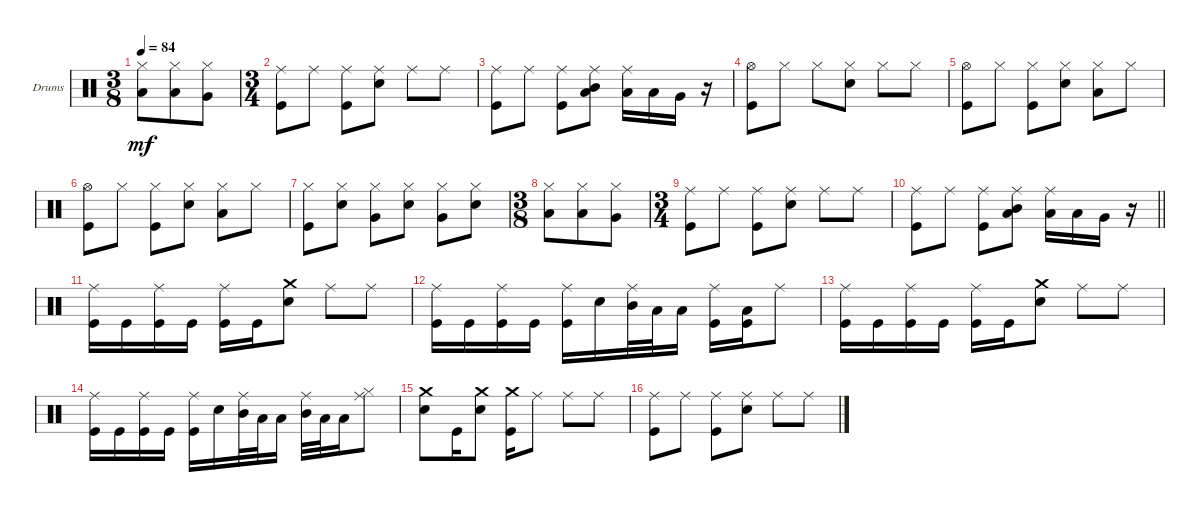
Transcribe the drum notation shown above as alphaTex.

\defaultSystemsLayout 4
\bracketExtendMode groupsimilarinstruments
\firstSystemTrackNameOrientation horizontal
\otherSystemsTrackNameOrientation horizontal
\track ("Drumkit" "Drums") {instrument percussion}
\staff {score}
\articulation defaults
\ts (3 8)
\tempo 84
\clef neutral
\scale
0.391473
\ks c
("Low Tom (hit)" "Hi-Hat (closed)").8{dy mf} ("Low Tom (hit)" "Hi-Hat (closed)").8 ("Very Low Tom (hit)" "Hi-Hat (closed)").8 |
\ts (3 4)
\scale
0.391473 ("Kick (hit)" "Ride (middle)").8 "Ride (middle)".8 ("Kick (hit)" "Ride (middle)").8 ("Snare (hit) 2" "Ride (middle)").8 "Ride (middle)".8 "Ride (middle)".8 |
\scale
0.333333 ("Kick (hit)" "Ride (middle)").8 "Ride (middle)".8 ("Kick (hit)" "Ride (middle)").8 ("Low Tom (hit)" "Mid Tom (hit)" "Ride (middle)").8 ("Low Tom (hit)" "Ride (middle)").16 "Low Tom (hit)".16 "Very Low Tom (hit)".16 r.16 |
\scale
0.333333 ("Kick (hit)" "Hi-Hat (open)").8 "Hi-Hat (closed)".8 "Hi-Hat (closed)".8 ("Snare (hit) 2" "Hi-Hat (closed)").8 "Hi-Hat (closed)".8 "Hi-Hat (closed)".8 |
\scale
0.333333 ("Kick (hit)" "Hi-Hat (open)").8 "Hi-Hat (closed)".8 ("Hi-Hat (closed)" "Kick (hit)").8 ("Snare (hit) 2" "Hi-Hat (closed)").8 ("Low Tom (hit)" "Hi-Hat (closed)").8 "Hi-Hat (closed)".8 |
\scale
0.262911 ("Kick (hit)" "Hi-Hat (open)").8 "Hi-Hat (closed)".8 ("Kick (hit)" "Hi-Hat (closed)").8 ("Snare (hit) 2" "Hi-Hat (closed)").8 ("Hi-Hat (closed)" "Low Tom (hit)").8 "Hi-Hat (closed)".8 |
\scale
0.262911 ("Kick (hit)" "Hi-Hat (closed)").8 ("Snare (hit) 2" "Hi-Hat (closed)").8 ("Very Low Tom (hit)" "Hi-Hat (closed)").8 ("Snare (hit) 2" "Hi-Hat (closed)").8 ("Very Low Tom (hit)" "Hi-Hat (closed)").8 ("Hi-Hat (closed)" "Snare (hit) 2").8 |
\ts (3 8)
\scale
0.474178 ("Low Tom (hit)" "Hi-Hat (closed)").8 ("Low Tom (hit)" "Hi-Hat (closed)").8 ("Very Low Tom (hit)" "Hi-Hat (closed)").8 |
\ts (3 4)
\scale
0.474178 ("Kick (hit)" "Ride (middle)").8 "Ride (middle)".8 ("Kick (hit)" "Ride (middle)").8 ("Snare (hit) 2" "Ride (middle)").8 "Ride (middle)".8 "Ride (middle)".8 |
\scale
0.262911
\barLineRight lightlight
("Kick (hit)" "Ride (middle)").8 "Ride (middle)".8 ("Kick (hit)" "Ride (middle)").8 ("Low Tom (hit)" "Mid Tom (hit)" "Ride (middle)").8 ("Low Tom (hit)" "Ride (middle)").16 "Low Tom (hit)".16 "Very Low Tom (hit)".16 r.16 |
\scale
0.262911 ("Kick (hit)" "Ride (middle)").16 "Kick (hit)".16 ("Kick (hit)" "Ride (middle)").16 "Kick (hit)".16 ("Kick (hit)" "Ride (middle)").16 "Kick (hit)".16 ("Snare (hit) 2" "Crash medium (hit)").8 "Ride (middle)".8 "Ride (middle)".8 |
\scale
0.333333 ("Kick (hit)" "Ride (middle)").16 "Kick (hit)".16 ("Kick (hit)" "Ride (middle)").16 "Kick (hit)".16 ("Kick (hit)" "Ride (middle)").16 "Snare (hit) 2".16 ("Ride (middle)" "Mid Tom (hit)").32 "Low Tom (hit)".32 "Low Tom (hit)".16 ("Kick (hit)" "Ride (middle)").16 ("Low Tom (hit)" "Kick (hit)").16 "Ride (middle)".8 |
\scale
0.333333 ("Kick (hit)" "Ride (middle)").16 "Kick (hit)".16 ("Kick (hit)" "Ride (middle)").16 "Kick (hit)".16 ("Kick (hit)" "Ride (middle)").16 "Kick (hit)".16 ("Snare (hit) 2" "Crash medium (hit)").8 "Ride (middle)".8 "Ride (middle)".8 |
\scale
0.333333 ("Kick (hit)" "Ride (middle)").16 "Kick (hit)".16 ("Kick (hit)" "Ride (middle)").16 "Kick (hit)".16 ("Kick (hit)" "Ride (middle)").16 "Snare (hit) 2".16 ("Ride (middle)" "Mid Tom (hit)").32 "Low Tom (hit)".32 "Low Tom (hit)".16 ("Ride (middle)" "Mid Tom (hit)").32 "Low Tom (hit)".32 "Low Tom (hit)".16 ("Hi-Hat (closed)" "Ride (middle)").8 |
\scale
0.333333 ("Snare (hit) 2" "Crash medium (hit)").8 "Kick (hit)".16 ("Snare (hit) 2" "Crash medium (hit)").8 ("Crash medium (hit)" "Kick (hit)").16 "Ride (middle)".8 "Ride (middle)".8 "Ride (middle)".8 |
\scale
0.333333 ("Kick (hit)" "Ride (middle)").8 "Ride (middle)".8 ("Ride (middle)" "Kick (hit)").8 ("Snare (hit) 2" "Ride (middle)").8 "Ride (middle)".8 "Ride (middle)".8
